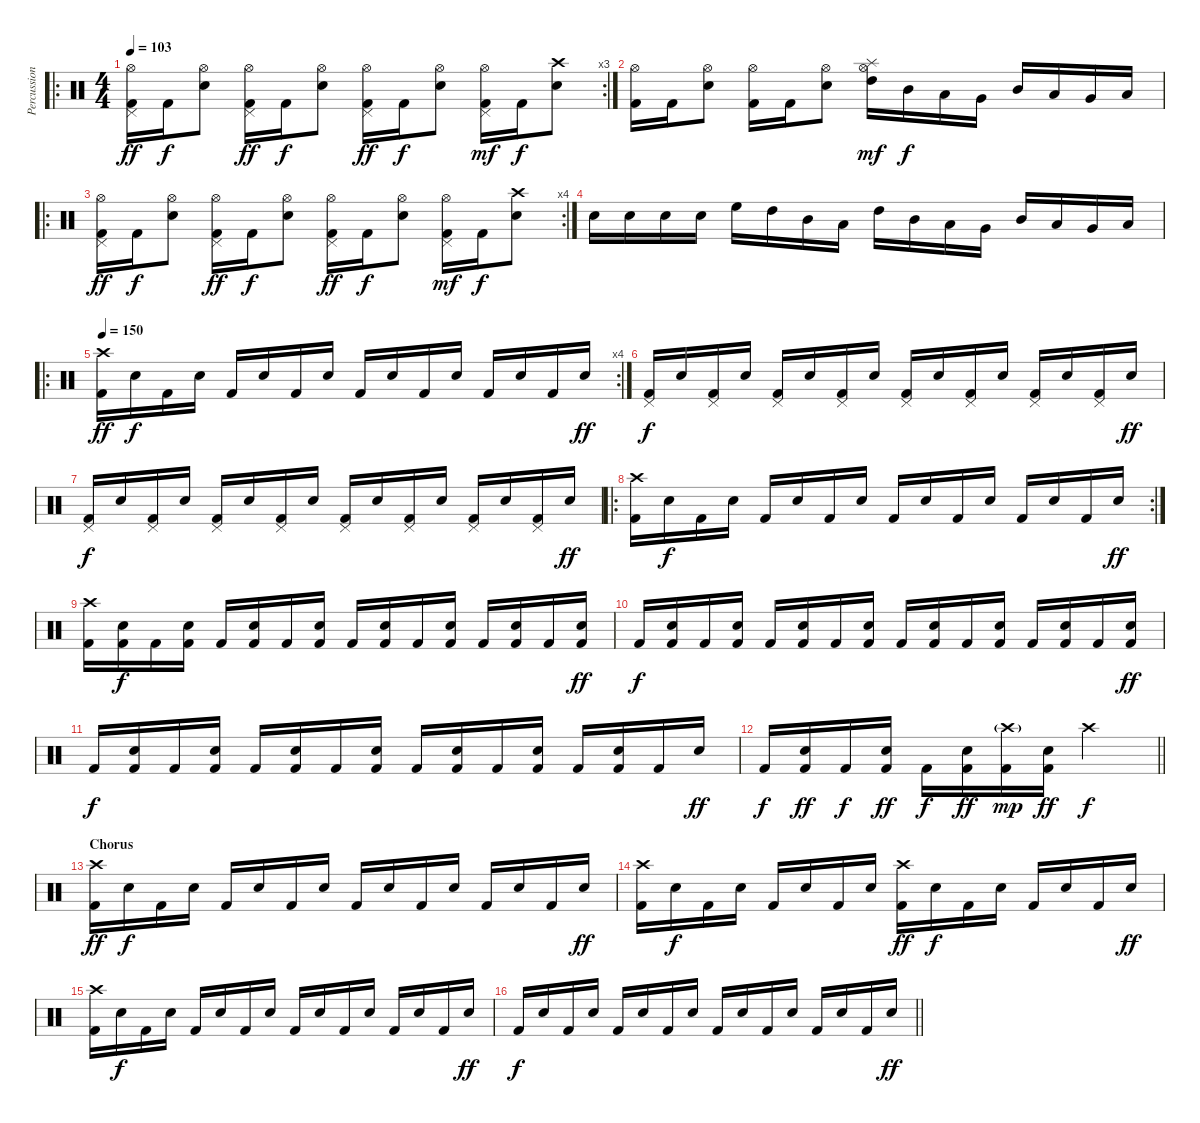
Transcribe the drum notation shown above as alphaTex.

\track ("Percussion" "Percussion") {instrument percussion}
\staff {score}
\articulation defaults
\ro
\rc 3
\ts (4 4)
\tempo 103
\clef neutral
\ks c
("Pedal Hi-Hat (hit)" "Hi-Hat (open)" "Kick (hit) 2").16{dy ff} "Kick (hit) 2".16{dy f} ("Hi-Hat (open)" "Electric Snare (hit)").8 ("Pedal Hi-Hat (hit)" "Hi-Hat (open)" "Kick (hit) 2").16{dy ff} "Kick (hit) 2".16{dy f} ("Hi-Hat (open)" "Electric Snare (hit)").8 ("Pedal Hi-Hat (hit)" "Hi-Hat (open)" "Kick (hit) 2").16{dy ff} "Kick (hit) 2".16{dy f} ("Hi-Hat (open)" "Electric Snare (hit)").8 ("Pedal Hi-Hat (hit)" "Hi-Hat (open)" "Kick (hit) 2").16{dy mf} "Kick (hit) 2".16{dy f} ("Crash high (hit)" "Electric Snare (hit)").8 |
("Hi-Hat (open)" "Kick (hit) 2").16 "Kick (hit) 2".16 ("Hi-Hat (open)" "Electric Snare (hit)").8 ("Hi-Hat (open)" "Kick (hit) 2").16 "Kick (hit) 2".16 ("Hi-Hat (open)" "Electric Snare (hit)").8 ("Splash (hit)" "Hi-Hat (open)" "High Tom (hit)").16{dy mf} "Mid Tom (hit)".16{dy f} "Low Tom (hit)".16 "Very Low Tom (hit)".16 "Mid Tom (hit)".16 "Low Tom (hit)".16 "Very Low Tom (hit)".16 "Low Floor Tom (hit)".16 |
\ro
\rc 4
("Pedal Hi-Hat (hit)" "Hi-Hat (open)" "Kick (hit) 2").16{dy ff} "Kick (hit) 2".16{dy f} ("Hi-Hat (open)" "Electric Snare (hit)").8 ("Pedal Hi-Hat (hit)" "Hi-Hat (open)" "Kick (hit) 2").16{dy ff} "Kick (hit) 2".16{dy f} ("Hi-Hat (open)" "Electric Snare (hit)").8 ("Pedal Hi-Hat (hit)" "Hi-Hat (open)" "Kick (hit) 2").16{dy ff} "Kick (hit) 2".16{dy f} ("Hi-Hat (open)" "Electric Snare (hit)").8 ("Pedal Hi-Hat (hit)" "Hi-Hat (open)" "Kick (hit) 2").16{dy mf} "Kick (hit) 2".16{dy f} ("Crash high (hit)" "Electric Snare (hit)").8 |
"Electric Snare (hit)".16 "Electric Snare (hit)".16 "Electric Snare (hit)".16 "Electric Snare (hit)".16 "High Floor Tom (hit)".16 "High Tom (hit)".16 "Mid Tom (hit)".16 "Low Tom (hit)".16 "High Tom (hit)".16 "Mid Tom (hit)".16 "Low Tom (hit)".16 "Very Low Tom (hit)".16 "Mid Tom (hit)".16 "Low Tom (hit)".16 "Very Low Tom (hit)".16 "Low Floor Tom (hit)".16 |
\ro
\rc 4
\tempo 150
("Crash high (hit)" "Kick (hit) 2").16{dy ff} "Electric Snare (hit)".16{dy f} "Kick (hit) 2".16 "Electric Snare (hit)".16 "Kick (hit) 2".16 "Electric Snare (hit)".16 "Kick (hit) 2".16 "Electric Snare (hit)".16 "Kick (hit) 2".16 "Electric Snare (hit)".16 "Kick (hit) 2".16 "Electric Snare (hit)".16 "Kick (hit) 2".16 "Electric Snare (hit)".16 "Kick (hit) 2".16 "Electric Snare (hit)".16{dy ff} |
("Pedal Hi-Hat (hit)" "Kick (hit) 2").16{dy f} "Electric Snare (hit)".16 ("Pedal Hi-Hat (hit)" "Kick (hit) 2").16 "Electric Snare (hit)".16 ("Pedal Hi-Hat (hit)" "Kick (hit) 2").16 "Electric Snare (hit)".16 ("Pedal Hi-Hat (hit)" "Kick (hit) 2").16 "Electric Snare (hit)".16 ("Pedal Hi-Hat (hit)" "Kick (hit) 2").16 "Electric Snare (hit)".16 ("Pedal Hi-Hat (hit)" "Kick (hit) 2").16 "Electric Snare (hit)".16 ("Pedal Hi-Hat (hit)" "Kick (hit) 2").16 "Electric Snare (hit)".16 ("Pedal Hi-Hat (hit)" "Kick (hit) 2").16 "Electric Snare (hit)".16{dy ff} |
("Pedal Hi-Hat (hit)" "Kick (hit) 2").16{dy f} "Electric Snare (hit)".16 ("Pedal Hi-Hat (hit)" "Kick (hit) 2").16 "Electric Snare (hit)".16 ("Pedal Hi-Hat (hit)" "Kick (hit) 2").16 "Electric Snare (hit)".16 ("Pedal Hi-Hat (hit)" "Kick (hit) 2").16 "Electric Snare (hit)".16 ("Pedal Hi-Hat (hit)" "Kick (hit) 2").16 "Electric Snare (hit)".16 ("Pedal Hi-Hat (hit)" "Kick (hit) 2").16 "Electric Snare (hit)".16 ("Pedal Hi-Hat (hit)" "Kick (hit) 2").16 "Electric Snare (hit)".16 ("Pedal Hi-Hat (hit)" "Kick (hit) 2").16 "Electric Snare (hit)".16{dy ff} |
\ro
\rc 2
("Crash high (hit)" "Kick (hit) 2").16 "Electric Snare (hit)".16{dy f} "Kick (hit) 2".16 "Electric Snare (hit)".16 "Kick (hit) 2".16 "Electric Snare (hit)".16 "Kick (hit) 2".16 "Electric Snare (hit)".16 "Kick (hit) 2".16 "Electric Snare (hit)".16 "Kick (hit) 2".16 "Electric Snare (hit)".16 "Kick (hit) 2".16 "Electric Snare (hit)".16 "Kick (hit) 2".16 "Electric Snare (hit)".16{dy ff} |
("Crash high (hit)" "Kick (hit) 2").16 ("Electric Snare (hit)" "Kick (hit) 2").16{dy f} "Kick (hit) 2".16 ("Electric Snare (hit)" "Kick (hit) 2").16 "Kick (hit) 2".16 ("Electric Snare (hit)" "Kick (hit) 2").16 "Kick (hit) 2".16 ("Electric Snare (hit)" "Kick (hit) 2").16 "Kick (hit) 2".16 ("Electric Snare (hit)" "Kick (hit) 2").16 "Kick (hit) 2".16 ("Electric Snare (hit)" "Kick (hit) 2").16 "Kick (hit) 2".16 ("Electric Snare (hit)" "Kick (hit) 2").16 "Kick (hit) 2".16 ("Electric Snare (hit)" "Kick (hit) 2").16{dy ff} |
"Kick (hit) 2".16{dy f} ("Electric Snare (hit)" "Kick (hit) 2").16 "Kick (hit) 2".16 ("Electric Snare (hit)" "Kick (hit) 2").16 "Kick (hit) 2".16 ("Electric Snare (hit)" "Kick (hit) 2").16 "Kick (hit) 2".16 ("Electric Snare (hit)" "Kick (hit) 2").16 "Kick (hit) 2".16 ("Electric Snare (hit)" "Kick (hit) 2").16 "Kick (hit) 2".16 ("Electric Snare (hit)" "Kick (hit) 2").16 "Kick (hit) 2".16 ("Electric Snare (hit)" "Kick (hit) 2").16 "Kick (hit) 2".16 ("Electric Snare (hit)" "Kick (hit) 2").16{dy ff} |
"Kick (hit) 2".16{dy f} ("Electric Snare (hit)" "Kick (hit) 2").16 "Kick (hit) 2".16 ("Electric Snare (hit)" "Kick (hit) 2").16 "Kick (hit) 2".16 ("Electric Snare (hit)" "Kick (hit) 2").16 "Kick (hit) 2".16 ("Electric Snare (hit)" "Kick (hit) 2").16 "Kick (hit) 2".16 ("Electric Snare (hit)" "Kick (hit) 2").16 "Kick (hit) 2".16 ("Electric Snare (hit)" "Kick (hit) 2").16 "Kick (hit) 2".16 ("Electric Snare (hit)" "Kick (hit) 2").16 "Kick (hit) 2".16 "Electric Snare (hit)".16{dy ff} |
\barLineRight lightlight "Kick (hit) 2".16{dy f}
("Electric Snare (hit)" "Kick (hit) 2").16{dy ff} "Kick (hit) 2".16{dy f} ("Electric Snare (hit)" "Kick (hit) 2").16{dy ff} "Kick (hit) 2".16{dy f} ("Electric Snare (hit)" "Kick (hit) 2").16{dy ff} ("Crash high (hit)"{g} "Kick (hit) 2").16{dy mp} ("Electric Snare (hit)" "Kick (hit) 2").16{dy ff} "Crash high (hit)".2{dy f} |
\section ("" "Chorus")
("Crash high (hit)" "Kick (hit) 2").16{dy ff} "Electric Snare (hit)".16{dy f} "Kick (hit) 2".16 "Electric Snare (hit)".16 "Kick (hit) 2".16 "Electric Snare (hit)".16 "Kick (hit) 2".16 "Electric Snare (hit)".16 "Kick (hit) 2".16 "Electric Snare (hit)".16 "Kick (hit) 2".16 "Electric Snare (hit)".16 "Kick (hit) 2".16 "Electric Snare (hit)".16 "Kick (hit) 2".16 "Electric Snare (hit)".16{dy ff} |
("Crash high (hit)" "Kick (hit) 2").16 "Electric Snare (hit)".16{dy f} "Kick (hit) 2".16 "Electric Snare (hit)".16 "Kick (hit) 2".16 "Electric Snare (hit)".16 "Kick (hit) 2".16 "Electric Snare (hit)".16 ("Crash high (hit)" "Kick (hit) 2").16{dy ff} "Electric Snare (hit)".16{dy f} "Kick (hit) 2".16 "Electric Snare (hit)".16 "Kick (hit) 2".16 "Electric Snare (hit)".16 "Kick (hit) 2".16 "Electric Snare (hit)".16{dy ff} |
("Crash high (hit)" "Kick (hit) 2").16 "Electric Snare (hit)".16{dy f} "Kick (hit) 2".16 "Electric Snare (hit)".16 "Kick (hit) 2".16 "Electric Snare (hit)".16 "Kick (hit) 2".16 "Electric Snare (hit)".16 "Kick (hit) 2".16 "Electric Snare (hit)".16 "Kick (hit) 2".16 "Electric Snare (hit)".16 "Kick (hit) 2".16 "Electric Snare (hit)".16 "Kick (hit) 2".16 "Electric Snare (hit)".16{dy ff} |
\barLineRight lightlight "Kick (hit) 2".16{dy f} "Electric Snare (hit)".16 "Kick (hit) 2".16 "Electric Snare (hit)".16 "Kick (hit) 2".16 "Electric Snare (hit)".16 "Kick (hit) 2".16 "Electric Snare (hit)".16 "Kick (hit) 2".16 "Electric Snare (hit)".16 "Kick (hit) 2".16 "Electric Snare (hit)".16 "Kick (hit) 2".16 "Electric Snare (hit)".16 "Kick (hit) 2".16 "Electric Snare (hit)".16{dy ff}
